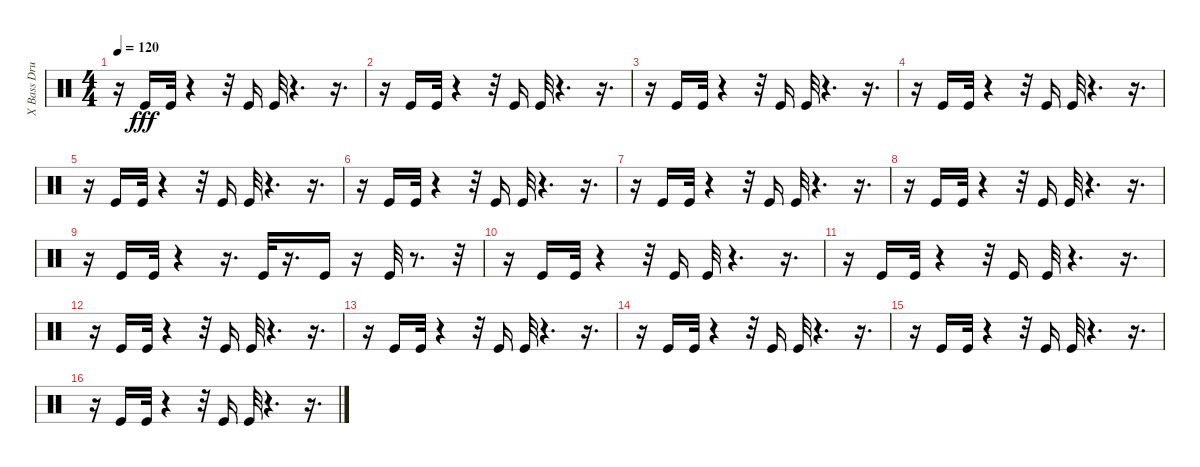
\track ("X Bass Drum         " "X Bass Dru") {instrument percussion}
\staff {score}
\articulation defaults
\ts (4 4)
\tempo 120
\clef neutral
\ks c
r.16{dy fff} "Kick (hit)".16 "Kick (hit)".32 r.4 r.32 "Kick (hit)".16 "Kick (hit)".32 r.4{d} r.16{d} |
r.16 "Kick (hit)".16 "Kick (hit)".32 r.4 r.32 "Kick (hit)".16 "Kick (hit)".32 r.4{d} r.16{d} |
r.16 "Kick (hit)".16 "Kick (hit)".32 r.4 r.32 "Kick (hit)".16 "Kick (hit)".32 r.4{d} r.16{d} |
r.16 "Kick (hit)".16 "Kick (hit)".32 r.4 r.32 "Kick (hit)".16 "Kick (hit)".32 r.4{d} r.16{d} |
r.16 "Kick (hit)".16 "Kick (hit)".32 r.4 r.32 "Kick (hit)".16 "Kick (hit)".32 r.4{d} r.16{d} |
r.16 "Kick (hit)".16 "Kick (hit)".32 r.4 r.32 "Kick (hit)".16 "Kick (hit)".32 r.4{d} r.16{d} |
r.16 "Kick (hit)".16 "Kick (hit)".32 r.4 r.32 "Kick (hit)".16 "Kick (hit)".32 r.4{d} r.16{d} |
r.16 "Kick (hit)".16 "Kick (hit)".32 r.4 r.32 "Kick (hit)".16 "Kick (hit)".32 r.4{d} r.16{d} |
r.16 "Kick (hit)".16 "Kick (hit)".32 r.4 r.16{d} "Kick (hit)".32 r.16{d} "Kick (hit)".16 r.16 "Kick (hit)".32 r.8{d} r.32 |
r.16 "Kick (hit)".16 "Kick (hit)".32 r.4 r.32 "Kick (hit)".16 "Kick (hit)".32 r.4{d} r.16{d} |
r.16 "Kick (hit)".16 "Kick (hit)".32 r.4 r.32 "Kick (hit)".16 "Kick (hit)".32 r.4{d} r.16{d} |
r.16 "Kick (hit)".16 "Kick (hit)".32 r.4 r.32 "Kick (hit)".16 "Kick (hit)".32 r.4{d} r.16{d} |
r.16 "Kick (hit)".16 "Kick (hit)".32 r.4 r.32 "Kick (hit)".16 "Kick (hit)".32 r.4{d} r.16{d} |
r.16 "Kick (hit)".16 "Kick (hit)".32 r.4 r.32 "Kick (hit)".16 "Kick (hit)".32 r.4{d} r.16{d} |
r.16 "Kick (hit)".16 "Kick (hit)".32 r.4 r.32 "Kick (hit)".16 "Kick (hit)".32 r.4{d} r.16{d} |
r.16 "Kick (hit)".16 "Kick (hit)".32 r.4 r.32 "Kick (hit)".16 "Kick (hit)".32 r.4{d} r.16{d}
